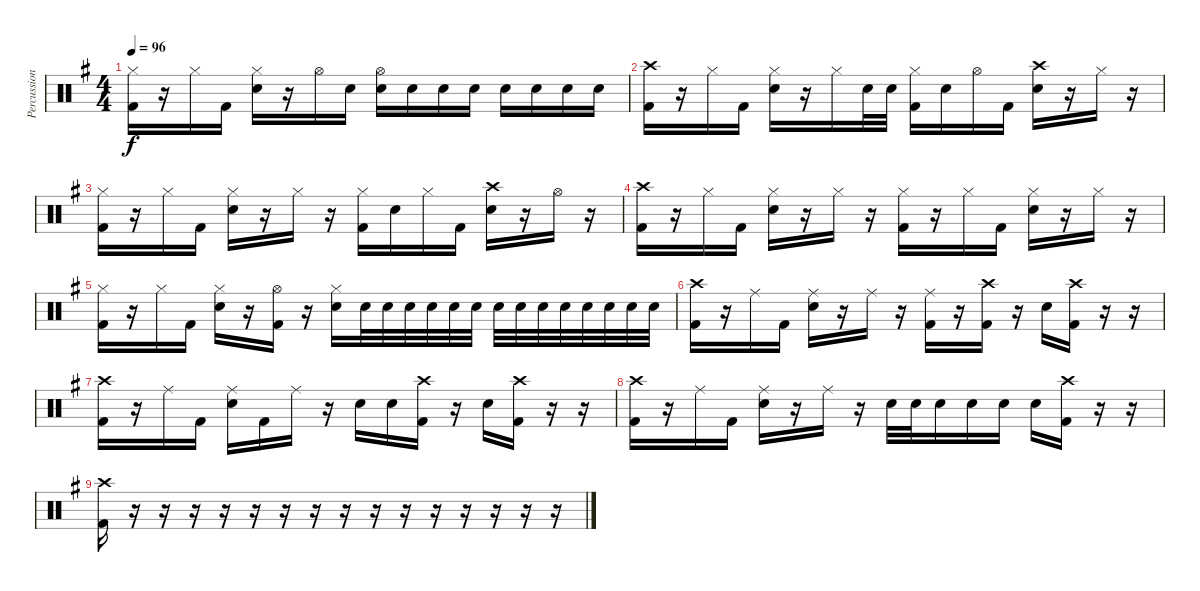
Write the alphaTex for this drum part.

\track ("Percussion" "Percussion") {instrument percussion}
\staff {score}
\articulation defaults
\ts (4 4)
\tempo 96
\clef neutral
\ks g
("Hi-Hat (closed)" "Kick (hit) 2").16{dy f} r.16 "Hi-Hat (closed)".16 "Kick (hit) 2".16 ("Hi-Hat (closed)" "Snare (hit) 2").16 r.16 "Hi-Hat (open)".16 "Snare (hit) 2".16 ("Hi-Hat (open)" "Snare (hit) 2").16 "Snare (hit) 2".16 "Snare (hit) 2".16 "Snare (hit) 2".16 "Snare (hit) 2".16 "Snare (hit) 2".16 "Snare (hit) 2".16 "Snare (hit) 2".16 |
("Crash high (hit)" "Kick (hit) 2").16 r.16 "Hi-Hat (closed)".16 "Kick (hit) 2".16 ("Hi-Hat (closed)" "Snare (hit) 2").16 r.16 "Hi-Hat (closed)".16 "Snare (hit) 2".32 "Snare (hit) 2".32 ("Hi-Hat (closed)" "Kick (hit) 2").16 "Snare (hit) 2".16 "Hi-Hat (open)".16 "Kick (hit) 2".16 ("Crash high (hit)" "Snare (hit) 2").16 r.16 "Hi-Hat (closed)".16 r.16 |
("Hi-Hat (closed)" "Kick (hit) 2").16 r.16 "Hi-Hat (closed)".16 "Kick (hit) 2".16 ("Hi-Hat (closed)" "Snare (hit) 2").16 r.16 "Hi-Hat (closed)".16 r.16 ("Hi-Hat (closed)" "Kick (hit) 2").16 "Snare (hit) 2".16 "Hi-Hat (closed)".16 "Kick (hit) 2".16 ("Crash high (hit)" "Snare (hit) 2").16 r.16 "Hi-Hat (open)".16 r.16 |
("Crash high (hit)" "Kick (hit) 2").16 r.16 "Hi-Hat (closed)".16 "Kick (hit) 2".16 ("Hi-Hat (closed)" "Snare (hit) 2").16 r.16 "Hi-Hat (closed)".16 r.16 ("Hi-Hat (closed)" "Kick (hit) 2").16 r.16 "Hi-Hat (closed)".16 "Kick (hit) 2".16 ("Hi-Hat (closed)" "Snare (hit) 2").16 r.16 "Hi-Hat (closed)".16 r.16 |
("Hi-Hat (closed)" "Kick (hit) 2").16 r.16 "Hi-Hat (closed)".16 "Kick (hit) 2".16 ("Hi-Hat (closed)" "Snare (hit) 2").16 r.16 ("Hi-Hat (open)" "Kick (hit) 2").16 r.16 ("Hi-Hat (closed)" "Snare (hit) 2").16 "Snare (hit) 2".32 "Snare (hit) 2".32 "Snare (hit) 2".32 "Snare (hit) 2".32 "Snare (hit) 2".32 "Snare (hit) 2".32 "Snare (hit) 2".32 "Snare (hit) 2".32 "Snare (hit) 2".32 "Snare (hit) 2".32 "Snare (hit) 2".32 "Snare (hit) 2".32 "Snare (hit) 2".32 "Snare (hit) 2".32 |
("Crash high (hit)" "Kick (hit) 2").16 r.16 "Ride (middle)".16 "Kick (hit) 2".16 ("Ride (middle)" "Snare (hit) 2").16 r.16 "Ride (middle)".16 r.16 ("Ride (middle)" "Kick (hit) 2").16 r.16 ("Crash high (hit)" "Kick (hit) 2").16 r.16 "Snare (hit) 2".16 ("Crash high (hit)" "Kick (hit) 2").16 r.16 r.16 |
("Crash high (hit)" "Kick (hit) 2").16 r.16 "Ride (middle)".16 "Kick (hit) 2".16 ("Ride (middle)" "Snare (hit) 2").16 "Kick (hit) 2".16 "Ride (middle)".16 r.16 "Snare (hit) 2".16 "Snare (hit) 2".16 ("Crash high (hit)" "Kick (hit) 2").16 r.16 "Snare (hit) 2".16 ("Crash high (hit)" "Kick (hit) 2").16 r.16 r.16 |
("Crash high (hit)" "Kick (hit) 2").16 r.16 "Ride (middle)".16 "Kick (hit) 2".16 ("Ride (middle)" "Snare (hit) 2").16 r.16 "Ride (middle)".16 r.16 "Snare (hit) 2".32 "Snare (hit) 2".32 "Snare (hit) 2".16 "Snare (hit) 2".16 "Snare (hit) 2".16 "Snare (hit) 2".16 ("Crash high (hit)" "Kick (hit) 2").16 r.16 r.16 |
("Crash high (hit)" "Kick (hit) 2").16 r.16 r.16 r.16 r.16 r.16 r.16 r.16 r.16 r.16 r.16 r.16 r.16 r.16 r.16 r.16
